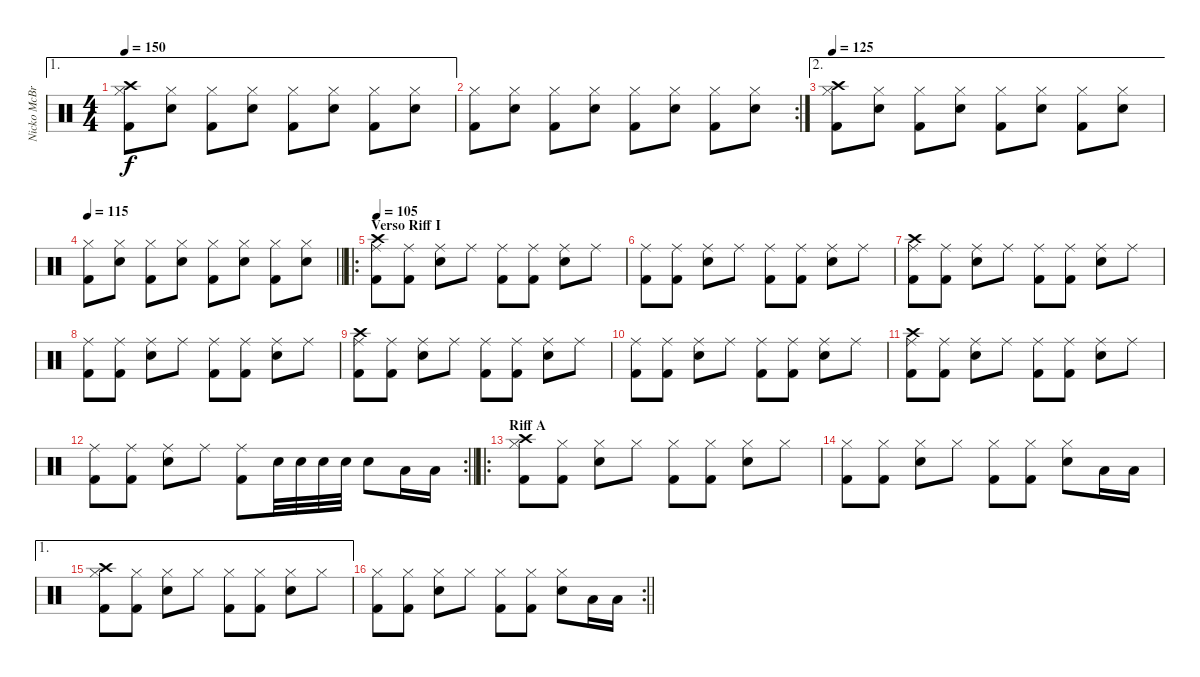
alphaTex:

\track ("Nicko McBrain" "Nicko McBr") {instrument percussion}
\staff {score}
\articulation defaults
\ae 1
\ts (4 4)
\tempo 150
\clef neutral
\ks c
("Hi-Hat (closed)" "Kick (hit) 2" "Crash high (hit)").8{dy f} ("Hi-Hat (closed)" "Snare (hit) 2").8 ("Hi-Hat (closed)" "Kick (hit) 2").8 ("Hi-Hat (closed)" "Snare (hit) 2").8 ("Hi-Hat (closed)" "Kick (hit) 2").8 ("Hi-Hat (closed)" "Snare (hit) 2").8 ("Hi-Hat (closed)" "Kick (hit) 2").8 ("Hi-Hat (closed)" "Snare (hit) 2").8 |
\rc 2
("Hi-Hat (closed)" "Kick (hit) 2").8 ("Hi-Hat (closed)" "Snare (hit) 2").8 ("Hi-Hat (closed)" "Kick (hit) 2").8 ("Hi-Hat (closed)" "Snare (hit) 2").8 ("Hi-Hat (closed)" "Kick (hit) 2").8 ("Hi-Hat (closed)" "Snare (hit) 2").8 ("Hi-Hat (closed)" "Kick (hit) 2").8 ("Hi-Hat (closed)" "Snare (hit) 2").8 |
\ae 2
\tempo 125
("Hi-Hat (closed)" "Kick (hit) 2" "Crash high (hit)").8 ("Hi-Hat (closed)" "Snare (hit) 2").8 ("Hi-Hat (closed)" "Kick (hit) 2").8 ("Hi-Hat (closed)" "Snare (hit) 2").8 ("Hi-Hat (closed)" "Kick (hit) 2").8 ("Hi-Hat (closed)" "Snare (hit) 2").8 ("Hi-Hat (closed)" "Kick (hit) 2").8 ("Hi-Hat (closed)" "Snare (hit) 2").8 |
\tempo 115
\barLineRight lightlight
("Hi-Hat (closed)" "Kick (hit) 2").8 ("Hi-Hat (closed)" "Snare (hit) 2").8 ("Hi-Hat (closed)" "Kick (hit) 2").8 ("Hi-Hat (closed)" "Snare (hit) 2").8 ("Hi-Hat (closed)" "Kick (hit) 2").8 ("Hi-Hat (closed)" "Snare (hit) 2").8 ("Hi-Hat (closed)" "Kick (hit) 2").8 ("Hi-Hat (closed)" "Snare (hit) 2").8 |
\ro
\section ("" "Verso Riff I")
\tempo 105
("Ride (middle)" "Crash high (hit)" "Kick (hit) 2").8 ("Ride (middle)" "Kick (hit) 2").8 ("Ride (middle)" "Snare (hit) 2").8 "Ride (middle)".8 ("Ride (middle)" "Kick (hit) 2").8 ("Ride (middle)" "Kick (hit) 2").8 ("Ride (middle)" "Snare (hit) 2").8 "Ride (middle)".8 |
("Ride (middle)" "Kick (hit) 2").8 ("Ride (middle)" "Kick (hit) 2").8 ("Ride (middle)" "Snare (hit) 2").8 "Ride (middle)".8 ("Ride (middle)" "Kick (hit) 2").8 ("Ride (middle)" "Kick (hit) 2").8 ("Ride (middle)" "Snare (hit) 2").8 "Ride (middle)".8 |
("Ride (middle)" "Crash high (hit)" "Kick (hit) 2").8 ("Ride (middle)" "Kick (hit) 2").8 ("Ride (middle)" "Snare (hit) 2").8 "Ride (middle)".8 ("Ride (middle)" "Kick (hit) 2").8 ("Ride (middle)" "Kick (hit) 2").8 ("Ride (middle)" "Snare (hit) 2").8 "Ride (middle)".8 |
("Ride (middle)" "Kick (hit) 2").8 ("Ride (middle)" "Kick (hit) 2").8 ("Ride (middle)" "Snare (hit) 2").8 "Ride (middle)".8 ("Ride (middle)" "Kick (hit) 2").8 ("Ride (middle)" "Kick (hit) 2").8 ("Ride (middle)" "Snare (hit) 2").8 "Ride (middle)".8 |
("Ride (middle)" "Crash high (hit)" "Kick (hit) 2").8 ("Ride (middle)" "Kick (hit) 2").8 ("Ride (middle)" "Snare (hit) 2").8 "Ride (middle)".8 ("Ride (middle)" "Kick (hit) 2").8 ("Ride (middle)" "Kick (hit) 2").8 ("Ride (middle)" "Snare (hit) 2").8 "Ride (middle)".8 |
("Ride (middle)" "Kick (hit) 2").8 ("Ride (middle)" "Kick (hit) 2").8 ("Ride (middle)" "Snare (hit) 2").8 "Ride (middle)".8 ("Ride (middle)" "Kick (hit) 2").8 ("Ride (middle)" "Kick (hit) 2").8 ("Ride (middle)" "Snare (hit) 2").8 "Ride (middle)".8 |
("Ride (middle)" "Crash high (hit)" "Kick (hit) 2").8 ("Ride (middle)" "Kick (hit) 2").8 ("Ride (middle)" "Snare (hit) 2").8 "Ride (middle)".8 ("Ride (middle)" "Kick (hit) 2").8 ("Ride (middle)" "Kick (hit) 2").8 ("Ride (middle)" "Snare (hit) 2").8 "Ride (middle)".8 |
\rc 2
\barLineRight lightlight
("Ride (middle)" "Kick (hit) 2").8 ("Ride (middle)" "Kick (hit) 2").8 ("Ride (middle)" "Snare (hit) 2").8 "Ride (middle)".8 ("Ride (middle)" "Kick (hit) 2").8 "Snare (hit) 2".32 "Snare (hit) 2".32 "Snare (hit) 2".32 "Snare (hit) 2".32 "Snare (hit) 2".8 "Low Tom (hit)".16 "Low Tom (hit)".16 |
\ro
\section ("" "Riff A")
("Hi-Hat (closed)" "Crash high (hit)" "Kick (hit) 2").8 ("Hi-Hat (closed)" "Kick (hit) 2").8 ("Hi-Hat (closed)" "Snare (hit) 2").8 "Hi-Hat (closed)".8 ("Hi-Hat (closed)" "Kick (hit) 2").8 ("Hi-Hat (closed)" "Kick (hit) 2").8 ("Hi-Hat (closed)" "Snare (hit) 2").8 "Hi-Hat (closed)".8 |
("Hi-Hat (closed)" "Kick (hit) 2").8 ("Hi-Hat (closed)" "Kick (hit) 2").8 ("Hi-Hat (closed)" "Snare (hit) 2").8 "Hi-Hat (closed)".8 ("Hi-Hat (closed)" "Kick (hit) 2").8 ("Hi-Hat (closed)" "Kick (hit) 2").8 ("Hi-Hat (closed)" "Snare (hit) 2").8 "Low Tom (hit)".16 "Low Tom (hit)".16 |
\ae 1
("Hi-Hat (closed)" "Crash high (hit)" "Kick (hit) 2").8 ("Hi-Hat (closed)" "Kick (hit) 2").8 ("Hi-Hat (closed)" "Snare (hit) 2").8 "Hi-Hat (closed)".8 ("Hi-Hat (closed)" "Kick (hit) 2").8 ("Hi-Hat (closed)" "Kick (hit) 2").8 ("Hi-Hat (closed)" "Snare (hit) 2").8 "Hi-Hat (closed)".8 |
\rc 2
\barLineRight lightlight
("Hi-Hat (closed)" "Kick (hit) 2").8 ("Hi-Hat (closed)" "Kick (hit) 2").8 ("Hi-Hat (closed)" "Snare (hit) 2").8 "Hi-Hat (closed)".8 ("Hi-Hat (closed)" "Kick (hit) 2").8 ("Hi-Hat (closed)" "Kick (hit) 2").8 ("Hi-Hat (closed)" "Snare (hit) 2").8 "Low Tom (hit)".16 "Low Tom (hit)".16
